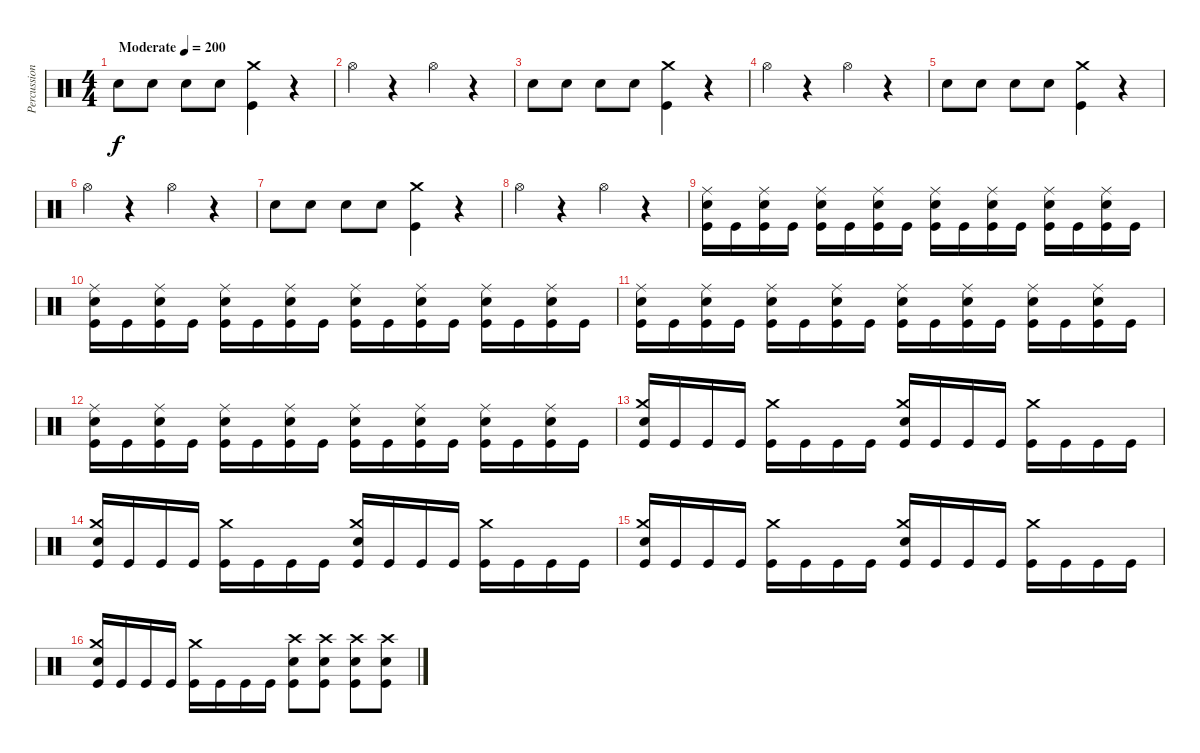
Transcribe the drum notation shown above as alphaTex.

\track ("Percussion" "Percussion") {instrument percussion}
\staff {score}
\articulation defaults
\ts (4 4)
\tempo (200 "Moderate")
\clef neutral
\ks c "Snare (hit) 2".8{dy f} "Snare (hit) 2".8 "Snare (hit) 2".8 "Snare (hit) 2".8
("Crash medium (hit)" "Kick (hit)").4 r.4 |
"Hi-Hat (open)".4 r.4 "Hi-Hat (open)".4 r.4 |
"Snare (hit) 2".8 "Snare (hit) 2".8 "Snare (hit) 2".8 "Snare (hit) 2".8 ("Crash medium (hit)" "Kick (hit)").4 r.4 |
"Hi-Hat (open)".4 r.4 "Hi-Hat (open)".4 r.4 |
"Snare (hit) 2".8 "Snare (hit) 2".8 "Snare (hit) 2".8 "Snare (hit) 2".8 ("Crash medium (hit)" "Kick (hit)").4 r.4 |
"Hi-Hat (open)".4 r.4 "Hi-Hat (open)".4 r.4 |
"Snare (hit) 2".8 "Snare (hit) 2".8 "Snare (hit) 2".8 "Snare (hit) 2".8 ("Crash medium (hit)" "Kick (hit)").4 r.4 |
"Hi-Hat (open)".4 r.4 "Hi-Hat (open)".4 r.4 |
("Ride (middle)" "Snare (hit) 2" "Kick (hit)").16 "Kick (hit)".16 ("Ride (middle)" "Snare (hit) 2" "Kick (hit)").16 "Kick (hit)".16 ("Ride (middle)" "Snare (hit) 2" "Kick (hit)").16 "Kick (hit)".16 ("Ride (middle)" "Snare (hit) 2" "Kick (hit)").16 "Kick (hit)".16 ("Ride (middle)" "Snare (hit) 2" "Kick (hit)").16 "Kick (hit)".16 ("Ride (middle)" "Snare (hit) 2" "Kick (hit)").16 "Kick (hit)".16 ("Ride (middle)" "Snare (hit) 2" "Kick (hit)").16 "Kick (hit)".16 ("Ride (middle)" "Snare (hit) 2" "Kick (hit)").16 "Kick (hit)".16 |
("Ride (middle)" "Snare (hit) 2" "Kick (hit)").16 "Kick (hit)".16 ("Ride (middle)" "Snare (hit) 2" "Kick (hit)").16 "Kick (hit)".16 ("Ride (middle)" "Snare (hit) 2" "Kick (hit)").16 "Kick (hit)".16 ("Ride (middle)" "Snare (hit) 2" "Kick (hit)").16 "Kick (hit)".16 ("Ride (middle)" "Snare (hit) 2" "Kick (hit)").16 "Kick (hit)".16 ("Ride (middle)" "Snare (hit) 2" "Kick (hit)").16 "Kick (hit)".16 ("Ride (middle)" "Snare (hit) 2" "Kick (hit)").16 "Kick (hit)".16 ("Ride (middle)" "Snare (hit) 2" "Kick (hit)").16 "Kick (hit)".16 |
("Ride (middle)" "Snare (hit) 2" "Kick (hit)").16 "Kick (hit)".16 ("Ride (middle)" "Snare (hit) 2" "Kick (hit)").16 "Kick (hit)".16 ("Ride (middle)" "Snare (hit) 2" "Kick (hit)").16 "Kick (hit)".16 ("Ride (middle)" "Snare (hit) 2" "Kick (hit)").16 "Kick (hit)".16 ("Ride (middle)" "Snare (hit) 2" "Kick (hit)").16 "Kick (hit)".16 ("Ride (middle)" "Snare (hit) 2" "Kick (hit)").16 "Kick (hit)".16 ("Ride (middle)" "Snare (hit) 2" "Kick (hit)").16 "Kick (hit)".16 ("Ride (middle)" "Snare (hit) 2" "Kick (hit)").16 "Kick (hit)".16 |
("Ride (middle)" "Snare (hit) 2" "Kick (hit)").16 "Kick (hit)".16 ("Ride (middle)" "Snare (hit) 2" "Kick (hit)").16 "Kick (hit)".16 ("Ride (middle)" "Snare (hit) 2" "Kick (hit)").16 "Kick (hit)".16 ("Ride (middle)" "Snare (hit) 2" "Kick (hit)").16 "Kick (hit)".16 ("Ride (middle)" "Snare (hit) 2" "Kick (hit)").16 "Kick (hit)".16 ("Ride (middle)" "Snare (hit) 2" "Kick (hit)").16 "Kick (hit)".16 ("Ride (middle)" "Snare (hit) 2" "Kick (hit)").16 "Kick (hit)".16 ("Ride (middle)" "Snare (hit) 2" "Kick (hit)").16 "Kick (hit)".16 |
("Crash medium (hit)" "Snare (hit) 2" "Kick (hit)").16 "Kick (hit)".16 "Kick (hit)".16 "Kick (hit)".16 ("Crash medium (hit)" "Kick (hit)").16 "Kick (hit)".16 "Kick (hit)".16 "Kick (hit)".16 ("Crash medium (hit)" "Snare (hit) 2" "Kick (hit)").16 "Kick (hit)".16 "Kick (hit)".16 "Kick (hit)".16 ("Crash medium (hit)" "Kick (hit)").16 "Kick (hit)".16 "Kick (hit)".16 "Kick (hit)".16 |
("Crash medium (hit)" "Snare (hit) 2" "Kick (hit)").16 "Kick (hit)".16 "Kick (hit)".16 "Kick (hit)".16 ("Crash medium (hit)" "Kick (hit)").16 "Kick (hit)".16 "Kick (hit)".16 "Kick (hit)".16 ("Crash medium (hit)" "Snare (hit) 2" "Kick (hit)").16 "Kick (hit)".16 "Kick (hit)".16 "Kick (hit)".16 ("Crash medium (hit)" "Kick (hit)").16 "Kick (hit)".16 "Kick (hit)".16 "Kick (hit)".16 |
("Crash medium (hit)" "Snare (hit) 2" "Kick (hit)").16 "Kick (hit)".16 "Kick (hit)".16 "Kick (hit)".16 ("Crash medium (hit)" "Kick (hit)").16 "Kick (hit)".16 "Kick (hit)".16 "Kick (hit)".16 ("Crash medium (hit)" "Snare (hit) 2" "Kick (hit)").16 "Kick (hit)".16 "Kick (hit)".16 "Kick (hit)".16 ("Crash medium (hit)" "Kick (hit)").16 "Kick (hit)".16 "Kick (hit)".16 "Kick (hit)".16 |
("Crash medium (hit)" "Snare (hit) 2" "Kick (hit)").16 "Kick (hit)".16 "Kick (hit)".16 "Kick (hit)".16 ("Crash medium (hit)" "Kick (hit)").16 "Kick (hit)".16 "Kick (hit)".16 "Kick (hit)".16 ("Crash high (hit)" "Snare (hit) 2" "Kick (hit)").8 ("Crash high (hit)" "Snare (hit) 2" "Kick (hit)").8 ("Crash high (hit)" "Snare (hit) 2" "Kick (hit)").8 ("Crash high (hit)" "Snare (hit) 2" "Kick (hit)").8
